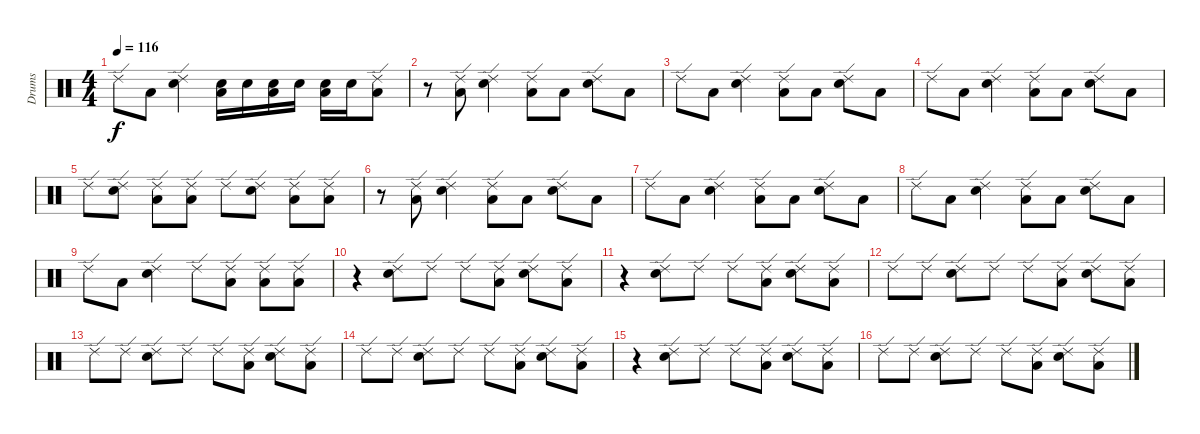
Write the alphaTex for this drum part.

\track ("Drums" "Drums") {instrument percussion}
\staff {score}
\articulation defaults
\ts (4 4)
\tempo 116
\clef neutral
\ks c "Ride (edge) 2".8{dy f} "Low Floor Tom (hit)".8
("Snare (hit) 2" "Ride (edge) 2").4 ("Snare (hit) 2" "Low Floor Tom (hit)").16 "Snare (hit) 2".16 ("Snare (hit) 2" "Low Floor Tom (hit)").16 "Snare (hit) 2".16 ("Snare (hit) 2" "Low Floor Tom (hit)").16 "Snare (hit) 2".16 ("Low Floor Tom (hit)" "Ride (edge) 2").8 |
r.8 ("Low Floor Tom (hit)" "Ride (edge) 2").8 ("Snare (hit) 2" "Ride (edge) 2").4 ("Low Floor Tom (hit)" "Ride (edge) 2").8 "Low Floor Tom (hit)".8 ("Snare (hit) 2" "Ride (edge) 2").8 "Low Floor Tom (hit)".8 |
"Ride (edge) 2".8 "Low Floor Tom (hit)".8 ("Snare (hit) 2" "Ride (edge) 2").4 ("Low Floor Tom (hit)" "Ride (edge) 2").8 "Low Floor Tom (hit)".8 ("Snare (hit) 2" "Ride (edge) 2").8 "Low Floor Tom (hit)".8 |
"Ride (edge) 2".8 "Low Floor Tom (hit)".8 ("Snare (hit) 2" "Ride (edge) 2").4 ("Low Floor Tom (hit)" "Ride (edge) 2").8 "Low Floor Tom (hit)".8 ("Snare (hit) 2" "Ride (edge) 2").8 "Low Floor Tom (hit)".8 |
"Ride (edge) 2".8 ("Snare (hit) 2" "Ride (edge) 2").8 ("Low Floor Tom (hit)" "Ride (edge) 2").8 ("Low Floor Tom (hit)" "Ride (edge) 2").8 "Ride (edge) 2".8 ("Snare (hit) 2" "Ride (edge) 2").8 ("Low Floor Tom (hit)" "Ride (edge) 2").8 ("Low Floor Tom (hit)" "Ride (edge) 2").8 |
r.8 ("Low Floor Tom (hit)" "Ride (edge) 2").8 ("Snare (hit) 2" "Ride (edge) 2").4 ("Low Floor Tom (hit)" "Ride (edge) 2").8 "Low Floor Tom (hit)".8 ("Snare (hit) 2" "Ride (edge) 2").8 "Low Floor Tom (hit)".8 |
"Ride (edge) 2".8 "Low Floor Tom (hit)".8 ("Snare (hit) 2" "Ride (edge) 2").4 ("Low Floor Tom (hit)" "Ride (edge) 2").8 "Low Floor Tom (hit)".8 ("Snare (hit) 2" "Ride (edge) 2").8 "Low Floor Tom (hit)".8 |
"Ride (edge) 2".8 "Low Floor Tom (hit)".8 ("Snare (hit) 2" "Ride (edge) 2").4 ("Low Floor Tom (hit)" "Ride (edge) 2").8 "Low Floor Tom (hit)".8 ("Snare (hit) 2" "Ride (edge) 2").8 "Low Floor Tom (hit)".8 |
"Ride (edge) 2".8 "Low Floor Tom (hit)".8 ("Snare (hit) 2" "Ride (edge) 2").4 "Ride (edge) 2".8 ("Low Floor Tom (hit)" "Ride (edge) 2").8 ("Low Floor Tom (hit)" "Ride (edge) 2").8 ("Low Floor Tom (hit)" "Ride (edge) 2").8 |
r.4 ("Snare (hit) 2" "Ride (edge) 2").8 "Ride (edge) 2".8 "Ride (edge) 2".8 ("Low Floor Tom (hit)" "Ride (edge) 2").8 ("Snare (hit) 2" "Ride (edge) 2").8 ("Low Floor Tom (hit)" "Ride (edge) 2").8 |
r.4 ("Snare (hit) 2" "Ride (edge) 2").8 "Ride (edge) 2".8 "Ride (edge) 2".8 ("Low Floor Tom (hit)" "Ride (edge) 2").8 ("Snare (hit) 2" "Ride (edge) 2").8 ("Low Floor Tom (hit)" "Ride (edge) 2").8 |
"Ride (edge) 2".8 "Ride (edge) 2".8 ("Snare (hit) 2" "Ride (edge) 2").8 "Ride (edge) 2".8 "Ride (edge) 2".8 ("Low Floor Tom (hit)" "Ride (edge) 2").8 ("Snare (hit) 2" "Ride (edge) 2").8 ("Low Floor Tom (hit)" "Ride (edge) 2").8 |
"Ride (edge) 2".8 "Ride (edge) 2".8 ("Snare (hit) 2" "Ride (edge) 2").8 "Ride (edge) 2".8 "Ride (edge) 2".8 ("Low Floor Tom (hit)" "Ride (edge) 2").8 ("Snare (hit) 2" "Ride (edge) 2").8 ("Low Floor Tom (hit)" "Ride (edge) 2").8 |
"Ride (edge) 2".8 "Ride (edge) 2".8 ("Snare (hit) 2" "Ride (edge) 2").8 "Ride (edge) 2".8 "Ride (edge) 2".8 ("Low Floor Tom (hit)" "Ride (edge) 2").8 ("Snare (hit) 2" "Ride (edge) 2").8 ("Low Floor Tom (hit)" "Ride (edge) 2").8 |
r.4 ("Snare (hit) 2" "Ride (edge) 2").8 "Ride (edge) 2".8 "Ride (edge) 2".8 ("Low Floor Tom (hit)" "Ride (edge) 2").8 ("Snare (hit) 2" "Ride (edge) 2").8 ("Low Floor Tom (hit)" "Ride (edge) 2").8 |
"Ride (edge) 2".8 "Ride (edge) 2".8 ("Snare (hit) 2" "Ride (edge) 2").8 "Ride (edge) 2".8 "Ride (edge) 2".8 ("Low Floor Tom (hit)" "Ride (edge) 2").8 ("Snare (hit) 2" "Ride (edge) 2").8 ("Low Floor Tom (hit)" "Ride (edge) 2").8
